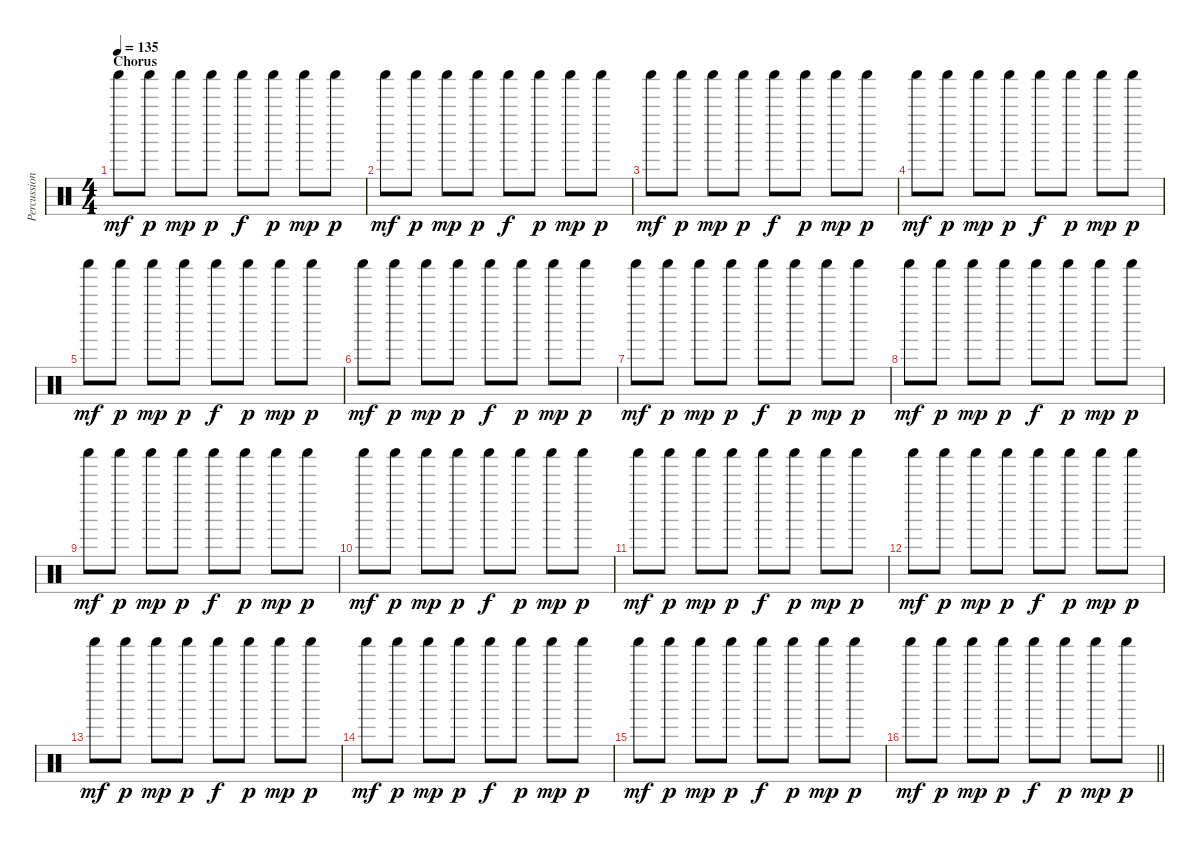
\track ("Percussion" "Percussion") {instrument percussion}
\staff {score}
\articulation defaults
\ts (4 4)
\section ("" "Chorus")
\tempo 135
\clef neutral
\ks c "Shaker (hit)".8{dy mf} "Shaker (hit)".8{dy p} "Shaker (hit)".8{dy mp} "Shaker (hit)".8{dy p} "Shaker (hit)".8{dy f} "Shaker (hit)".8{dy p} "Shaker (hit)".8{dy mp} "Shaker (hit)".8{dy p}
|
"Shaker (hit)".8{dy mf} "Shaker (hit)".8{dy p} "Shaker (hit)".8{dy mp} "Shaker (hit)".8{dy p} "Shaker (hit)".8{dy f} "Shaker (hit)".8{dy p} "Shaker (hit)".8{dy mp} "Shaker (hit)".8{dy p} |
"Shaker (hit)".8{dy mf} "Shaker (hit)".8{dy p} "Shaker (hit)".8{dy mp} "Shaker (hit)".8{dy p} "Shaker (hit)".8{dy f} "Shaker (hit)".8{dy p} "Shaker (hit)".8{dy mp} "Shaker (hit)".8{dy p} |
"Shaker (hit)".8{dy mf} "Shaker (hit)".8{dy p} "Shaker (hit)".8{dy mp} "Shaker (hit)".8{dy p} "Shaker (hit)".8{dy f} "Shaker (hit)".8{dy p} "Shaker (hit)".8{dy mp} "Shaker (hit)".8{dy p} |
"Shaker (hit)".8{dy mf} "Shaker (hit)".8{dy p} "Shaker (hit)".8{dy mp} "Shaker (hit)".8{dy p} "Shaker (hit)".8{dy f} "Shaker (hit)".8{dy p} "Shaker (hit)".8{dy mp} "Shaker (hit)".8{dy p} |
"Shaker (hit)".8{dy mf} "Shaker (hit)".8{dy p} "Shaker (hit)".8{dy mp} "Shaker (hit)".8{dy p} "Shaker (hit)".8{dy f} "Shaker (hit)".8{dy p} "Shaker (hit)".8{dy mp} "Shaker (hit)".8{dy p} |
"Shaker (hit)".8{dy mf} "Shaker (hit)".8{dy p} "Shaker (hit)".8{dy mp} "Shaker (hit)".8{dy p} "Shaker (hit)".8{dy f} "Shaker (hit)".8{dy p} "Shaker (hit)".8{dy mp} "Shaker (hit)".8{dy p} |
"Shaker (hit)".8{dy mf} "Shaker (hit)".8{dy p} "Shaker (hit)".8{dy mp} "Shaker (hit)".8{dy p} "Shaker (hit)".8{dy f} "Shaker (hit)".8{dy p} "Shaker (hit)".8{dy mp} "Shaker (hit)".8{dy p} |
"Shaker (hit)".8{dy mf} "Shaker (hit)".8{dy p} "Shaker (hit)".8{dy mp} "Shaker (hit)".8{dy p} "Shaker (hit)".8{dy f} "Shaker (hit)".8{dy p} "Shaker (hit)".8{dy mp} "Shaker (hit)".8{dy p} |
"Shaker (hit)".8{dy mf} "Shaker (hit)".8{dy p} "Shaker (hit)".8{dy mp} "Shaker (hit)".8{dy p} "Shaker (hit)".8{dy f} "Shaker (hit)".8{dy p} "Shaker (hit)".8{dy mp} "Shaker (hit)".8{dy p} |
"Shaker (hit)".8{dy mf} "Shaker (hit)".8{dy p} "Shaker (hit)".8{dy mp} "Shaker (hit)".8{dy p} "Shaker (hit)".8{dy f} "Shaker (hit)".8{dy p} "Shaker (hit)".8{dy mp} "Shaker (hit)".8{dy p} |
"Shaker (hit)".8{dy mf} "Shaker (hit)".8{dy p} "Shaker (hit)".8{dy mp} "Shaker (hit)".8{dy p} "Shaker (hit)".8{dy f} "Shaker (hit)".8{dy p} "Shaker (hit)".8{dy mp} "Shaker (hit)".8{dy p} |
"Shaker (hit)".8{dy mf} "Shaker (hit)".8{dy p} "Shaker (hit)".8{dy mp} "Shaker (hit)".8{dy p} "Shaker (hit)".8{dy f} "Shaker (hit)".8{dy p} "Shaker (hit)".8{dy mp} "Shaker (hit)".8{dy p} |
"Shaker (hit)".8{dy mf} "Shaker (hit)".8{dy p} "Shaker (hit)".8{dy mp} "Shaker (hit)".8{dy p} "Shaker (hit)".8{dy f} "Shaker (hit)".8{dy p} "Shaker (hit)".8{dy mp} "Shaker (hit)".8{dy p} |
"Shaker (hit)".8{dy mf} "Shaker (hit)".8{dy p} "Shaker (hit)".8{dy mp} "Shaker (hit)".8{dy p} "Shaker (hit)".8{dy f} "Shaker (hit)".8{dy p} "Shaker (hit)".8{dy mp} "Shaker (hit)".8{dy p} |
\barLineRight lightlight "Shaker (hit)".8{dy mf} "Shaker (hit)".8{dy p} "Shaker (hit)".8{dy mp} "Shaker (hit)".8{dy p} "Shaker (hit)".8{dy f} "Shaker (hit)".8{dy p} "Shaker (hit)".8{dy mp} "Shaker (hit)".8{dy p}
